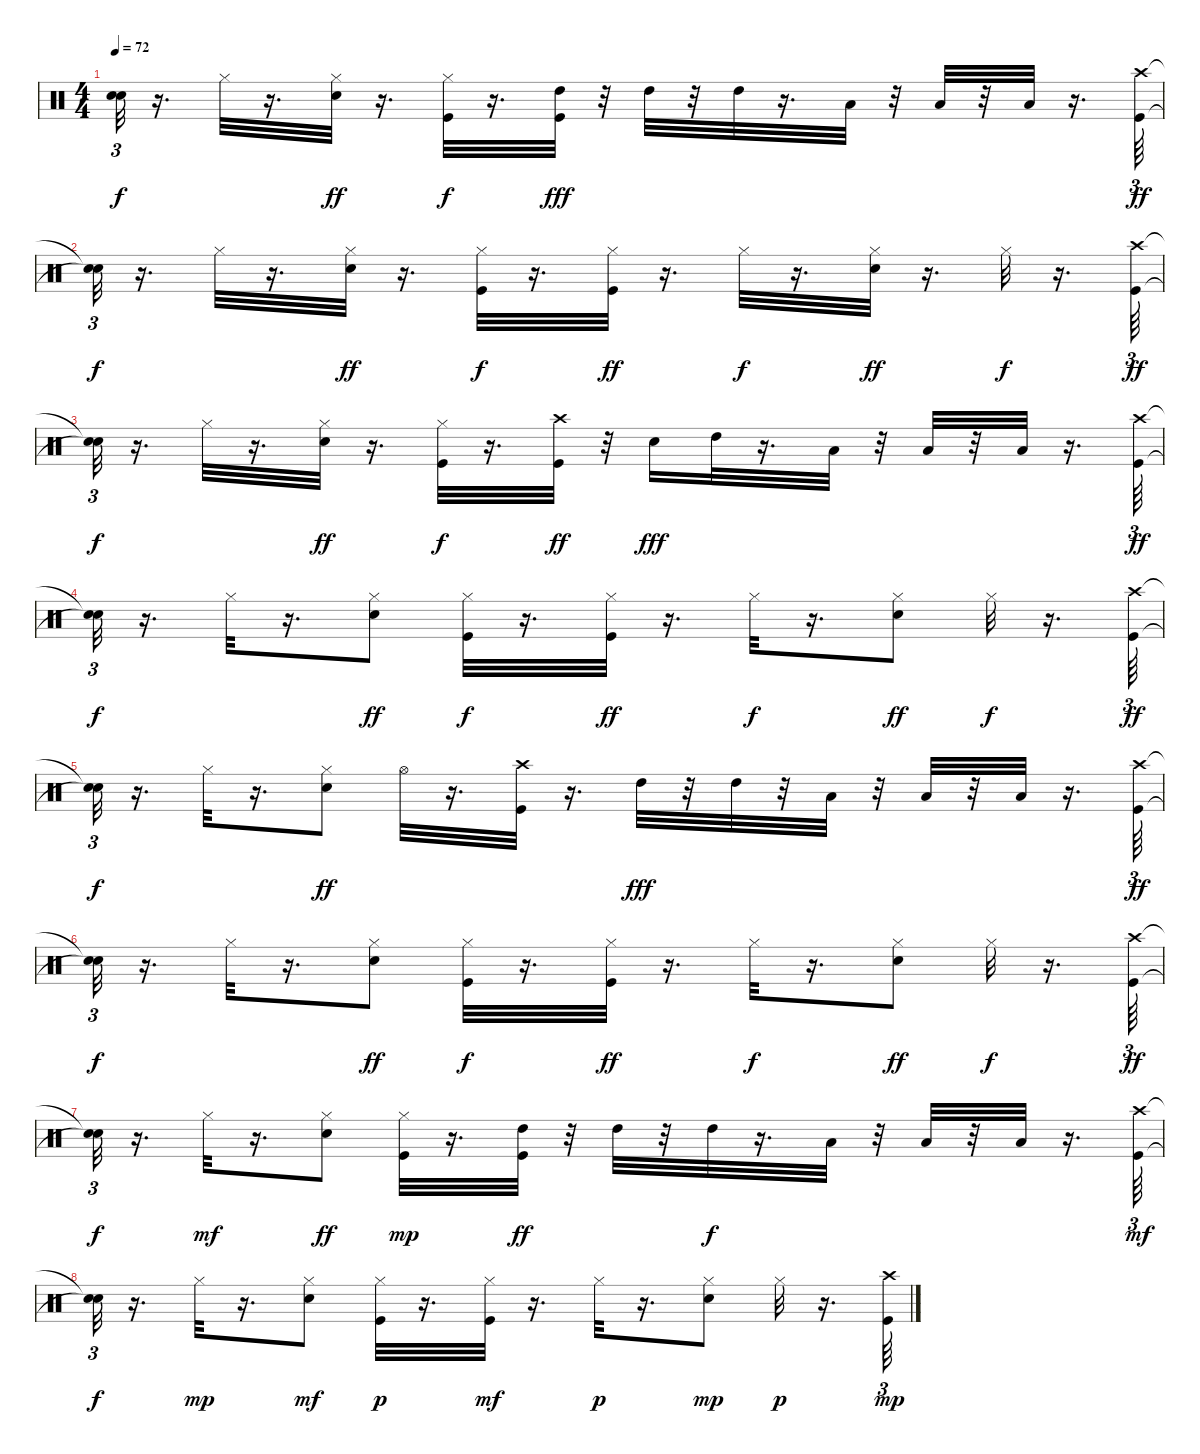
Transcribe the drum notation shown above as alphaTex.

\track (" " " ") {instrument percussion}
\staff {score}
\articulation defaults
\ts (4 4)
\tempo 72
\clef neutral
\ks c
("Snare (hit)"{t} "Snare (hit)"{t}).32{tu (3 2) dy f} r.16{d} "Hi-Hat (closed)".32 r.16{d} ("Electric Snare (hit)" "Hi-Hat (closed)").32{dy ff} r.16{d} ("Kick (hit)" "Hi-Hat (closed)").32{dy f} r.16{d} ("Kick (hit)" "High Tom (hit)").32{dy fff} r.32 "High Tom (hit)".32 r.32 "High Tom (hit)".32 r.16{d} "Low Tom (hit)".32 r.32 "Low Tom (hit)".32 r.32 "Low Floor Tom (hit)".32 r.16{d} ("Kick (hit)" "Crash high (hit)").64{tu (3 2) dy ff} |
("Snare (hit)"{t} "Snare (hit)"{t}).32{tu (3 2) dy f} r.16{d} "Hi-Hat (closed)".32 r.16{d} ("Electric Snare (hit)" "Hi-Hat (closed)").32{dy ff} r.16{d} ("Kick (hit)" "Hi-Hat (closed)").32{dy f} r.16{d} ("Kick (hit)" "Hi-Hat (closed)").32{dy ff} r.16{d} "Hi-Hat (closed)".32{dy f} r.16{d} ("Electric Snare (hit)" "Hi-Hat (closed)").32{dy ff} r.16{d} "Hi-Hat (closed)".32{dy f} r.16{d} ("Kick (hit)" "Crash high (hit)").64{tu (3 2) dy ff} |
("Snare (hit)"{t} "Snare (hit)"{t}).32{tu (3 2) dy f} r.16{d} "Hi-Hat (closed)".32 r.16{d} ("Electric Snare (hit)" "Hi-Hat (closed)").32{dy ff} r.16{d} ("Kick (hit)" "Hi-Hat (closed)").32{dy f} r.16{d} ("Kick (hit)" "Crash high (hit)").32{dy ff} r.32 "Electric Snare (hit)".16{dy fff} "High Tom (hit)".32 r.16{d} "Low Tom (hit)".32 r.32 "Low Tom (hit)".32 r.32 "Low Floor Tom (hit)".32 r.16{d} ("Kick (hit)" "Crash high (hit)").64{tu (3 2) dy ff} |
("Snare (hit)"{t} "Snare (hit)"{t}).32{tu (3 2) dy f} r.16{d} "Hi-Hat (closed)".32 r.16{d} ("Electric Snare (hit)" "Hi-Hat (closed)").8{dy ff} ("Kick (hit)" "Hi-Hat (closed)").32{dy f} r.16{d} ("Kick (hit)" "Hi-Hat (closed)").32{dy ff} r.16{d} "Hi-Hat (closed)".32{dy f} r.16{d} ("Electric Snare (hit)" "Hi-Hat (closed)").8{dy ff} "Hi-Hat (closed)".32{dy f} r.16{d} ("Kick (hit)" "Crash high (hit)").64{tu (3 2) dy ff} |
("Snare (hit)"{t} "Snare (hit)"{t}).32{tu (3 2) dy f} r.16{d} "Hi-Hat (closed)".32 r.16{d} ("Electric Snare (hit)" "Hi-Hat (closed)").8{dy ff} "Hi-Hat (open)".32 r.16{d} ("Kick (hit)" "Crash high (hit)").32 r.16{d} "High Tom (hit)".32{dy fff} r.32 "High Tom (hit)".32 r.32 "Low Tom (hit)".32 r.32 "Low Tom (hit)".32 r.32 "Low Floor Tom (hit)".32 r.16{d} ("Kick (hit)" "Crash high (hit)").64{tu (3 2) dy ff} |
("Snare (hit)"{t} "Snare (hit)"{t}).32{tu (3 2) dy f} r.16{d} "Hi-Hat (closed)".32 r.16{d} ("Electric Snare (hit)" "Hi-Hat (closed)").8{dy ff} ("Kick (hit)" "Hi-Hat (closed)").32{dy f} r.16{d} ("Kick (hit)" "Hi-Hat (closed)").32{dy ff} r.16{d} "Hi-Hat (closed)".32{dy f} r.16{d} ("Electric Snare (hit)" "Hi-Hat (closed)").8{dy ff} "Hi-Hat (closed)".32{dy f} r.16{d} ("Kick (hit)" "Crash high (hit)").64{tu (3 2) dy ff} |
("Snare (hit)"{t} "Snare (hit)"{t}).32{tu (3 2) dy f} r.16{d} "Hi-Hat (closed)".32{dy mf} r.16{d} ("Electric Snare (hit)" "Hi-Hat (closed)").8{dy ff} ("Kick (hit)" "Hi-Hat (closed)").32{dy mp} r.16{d} ("Kick (hit)" "High Tom (hit)").32{dy ff} r.32 "High Tom (hit)".32 r.32 "High Tom (hit)".32{dy f} r.16{d} "Low Tom (hit)".32 r.32 "Low Tom (hit)".32 r.32 "Low Floor Tom (hit)".32 r.16{d} ("Kick (hit)" "Crash high (hit)").64{tu (3 2) dy mf} |
("Snare (hit)"{t} "Snare (hit)"{t}).32{tu (3 2) dy f} r.16{d} "Hi-Hat (closed)".32{dy mp} r.16{d} ("Electric Snare (hit)" "Hi-Hat (closed)").8{dy mf} ("Kick (hit)" "Hi-Hat (closed)").32{dy p} r.16{d} ("Kick (hit)" "Hi-Hat (closed)").32{dy mf} r.16{d} "Hi-Hat (closed)".32{dy p} r.16{d} ("Electric Snare (hit)" "Hi-Hat (closed)").8{dy mp} "Hi-Hat (closed)".32{dy p} r.16{d} ("Kick (hit)" "Crash high (hit)").64{tu (3 2) dy mp}
